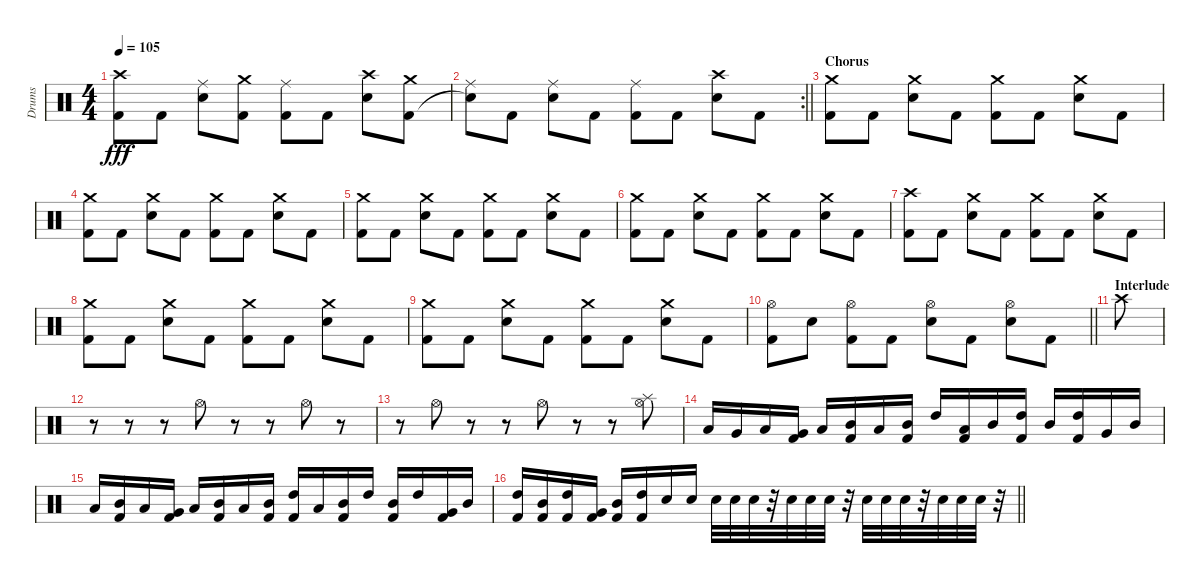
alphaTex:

\track ("Drums" "Drums") {instrument percussion}
\staff {score}
\articulation defaults
\ts (4 4)
\tempo 105
\clef neutral
\ks c
("Crash high (hit)" "Kick (hit) 2").8{dy fff} "Kick (hit) 2".8 ("Ride (middle)" "Electric Snare (hit)").8 ("Crash medium (hit)" "Kick (hit) 2").8 ("Ride (middle)" "Kick (hit) 2").8 "Kick (hit) 2".8 ("Crash high (hit)" "Electric Snare (hit)").8 ("Crash medium (hit)" "Kick (hit) 2").8 |
\rc 2
\barLineRight lightlight
("Ride (middle)" "Snare (hit)"{t}).8 "Kick (hit) 2".8 ("Ride (middle)" "Electric Snare (hit)").8 "Kick (hit) 2".8 ("Ride (middle)" "Kick (hit) 2").8 "Kick (hit) 2".8 ("Crash high (hit)" "Electric Snare (hit)").8 "Kick (hit) 2".8 |
\section ("" "Chorus")
("Crash medium (hit)" "Kick (hit) 2").8 "Kick (hit) 2".8 ("Crash medium (hit)" "Electric Snare (hit)").8 "Kick (hit) 2".8 ("Crash medium (hit)" "Kick (hit) 2").8 "Kick (hit) 2".8 ("Crash medium (hit)" "Electric Snare (hit)").8 "Kick (hit) 2".8 |
("Crash medium (hit)" "Kick (hit) 2").8 "Kick (hit) 2".8 ("Crash medium (hit)" "Electric Snare (hit)").8 "Kick (hit) 2".8 ("Crash medium (hit)" "Kick (hit) 2").8 "Kick (hit) 2".8 ("Crash medium (hit)" "Electric Snare (hit)").8 "Kick (hit) 2".8 |
("Crash medium (hit)" "Kick (hit) 2").8 "Kick (hit) 2".8 ("Crash medium (hit)" "Electric Snare (hit)").8 "Kick (hit) 2".8 ("Crash medium (hit)" "Kick (hit) 2").8 "Kick (hit) 2".8 ("Crash medium (hit)" "Electric Snare (hit)").8 "Kick (hit) 2".8 |
("Crash medium (hit)" "Kick (hit) 2").8 "Kick (hit) 2".8 ("Crash medium (hit)" "Electric Snare (hit)").8 "Kick (hit) 2".8 ("Crash medium (hit)" "Kick (hit) 2").8 "Kick (hit) 2".8 ("Crash medium (hit)" "Electric Snare (hit)").8 "Kick (hit) 2".8 |
("Crash high (hit)" "Kick (hit) 2").8 "Kick (hit) 2".8 ("Crash medium (hit)" "Electric Snare (hit)").8 "Kick (hit) 2".8 ("Crash medium (hit)" "Kick (hit) 2").8 "Kick (hit) 2".8 ("Crash medium (hit)" "Electric Snare (hit)").8 "Kick (hit) 2".8 |
("Crash medium (hit)" "Kick (hit) 2").8 "Kick (hit) 2".8 ("Crash medium (hit)" "Electric Snare (hit)").8 "Kick (hit) 2".8 ("Crash medium (hit)" "Kick (hit) 2").8 "Kick (hit) 2".8 ("Crash medium (hit)" "Electric Snare (hit)").8 "Kick (hit) 2".8 |
("Crash medium (hit)" "Kick (hit) 2").8 "Kick (hit) 2".8 ("Crash medium (hit)" "Electric Snare (hit)").8 "Kick (hit) 2".8 ("Crash medium (hit)" "Kick (hit) 2").8 "Kick (hit) 2".8 ("Crash medium (hit)" "Electric Snare (hit)").8 "Kick (hit) 2".8 |
\barLineRight lightlight
("Hi-Hat (open)" "Kick (hit) 2").8 "Electric Snare (hit)".8 ("Hi-Hat (open)" "Kick (hit) 2").8 "Kick (hit) 2".8 ("Hi-Hat (open)" "Electric Snare (hit)").8 "Kick (hit) 2".8 ("Hi-Hat (open)" "Electric Snare (hit)").8 "Kick (hit) 2".8 |
\section ("" "Interlude")
"Crash high (hit)".8 |
r.8 r.8 r.8 "Hi-Hat (open)".8 r.8 r.8 "Hi-Hat (open)".8 r.8 |
r.8 "Hi-Hat (open)".8 r.8 r.8 "Hi-Hat (open)".8 r.8 r.8 ("Hi-Hat (open)" "Splash (hit)").8 |
"Low Tom (hit)".16 "Very Low Tom (hit)".16 "Low Tom (hit)".16 ("Very Low Tom (hit)" "Kick (hit) 2").16 "Low Tom (hit)".16 ("Mid Tom (hit)" "Kick (hit) 2").16 "Low Tom (hit)".16 ("Mid Tom (hit)" "Kick (hit) 2").16 "High Tom (hit)".16 ("Low Tom (hit)" "Kick (hit) 2").16 "Mid Tom (hit)".16 ("High Tom (hit)" "Kick (hit) 2").16 "Mid Tom (hit)".16 ("High Tom (hit)" "Kick (hit) 2").16 "Very Low Tom (hit)".16 "Mid Tom (hit)".16 |
"Low Tom (hit)".16 ("Mid Tom (hit)" "Kick (hit) 2").16 "Low Tom (hit)".16 ("Very Low Tom (hit)" "Kick (hit) 2").16 "Low Tom (hit)".16 ("Mid Tom (hit)" "Kick (hit) 2").16 "Low Tom (hit)".16 ("Mid Tom (hit)" "Kick (hit) 2").16 ("High Tom (hit)" "Kick (hit) 2").16 "Low Tom (hit)".16 ("Mid Tom (hit)" "Kick (hit) 2").16 "High Tom (hit)".16 ("Mid Tom (hit)" "Kick (hit) 2").16 "High Tom (hit)".16 ("Very Low Tom (hit)" "Kick (hit) 2").16 "Mid Tom (hit)".16 |
\barLineRight lightlight
("High Tom (hit)" "Kick (hit) 2").16 ("Mid Tom (hit)" "Kick (hit) 2").16 ("High Tom (hit)" "Kick (hit) 2").16 ("Very Low Tom (hit)" "Kick (hit) 2").16 ("Mid Tom (hit)" "Kick (hit) 2").16 ("High Tom (hit)" "Kick (hit) 2").16 "Electric Snare (hit)".16 "Electric Snare (hit)".16 "Electric Snare (hit)".32 "Electric Snare (hit)".32 "Electric Snare (hit)".32 r.32 "Electric Snare (hit)".32 "Electric Snare (hit)".32 "Electric Snare (hit)".32 r.32 "Electric Snare (hit)".32 "Electric Snare (hit)".32 "Electric Snare (hit)".32 r.32 "Electric Snare (hit)".32 "Electric Snare (hit)".32 "Electric Snare (hit)".32 r.32
